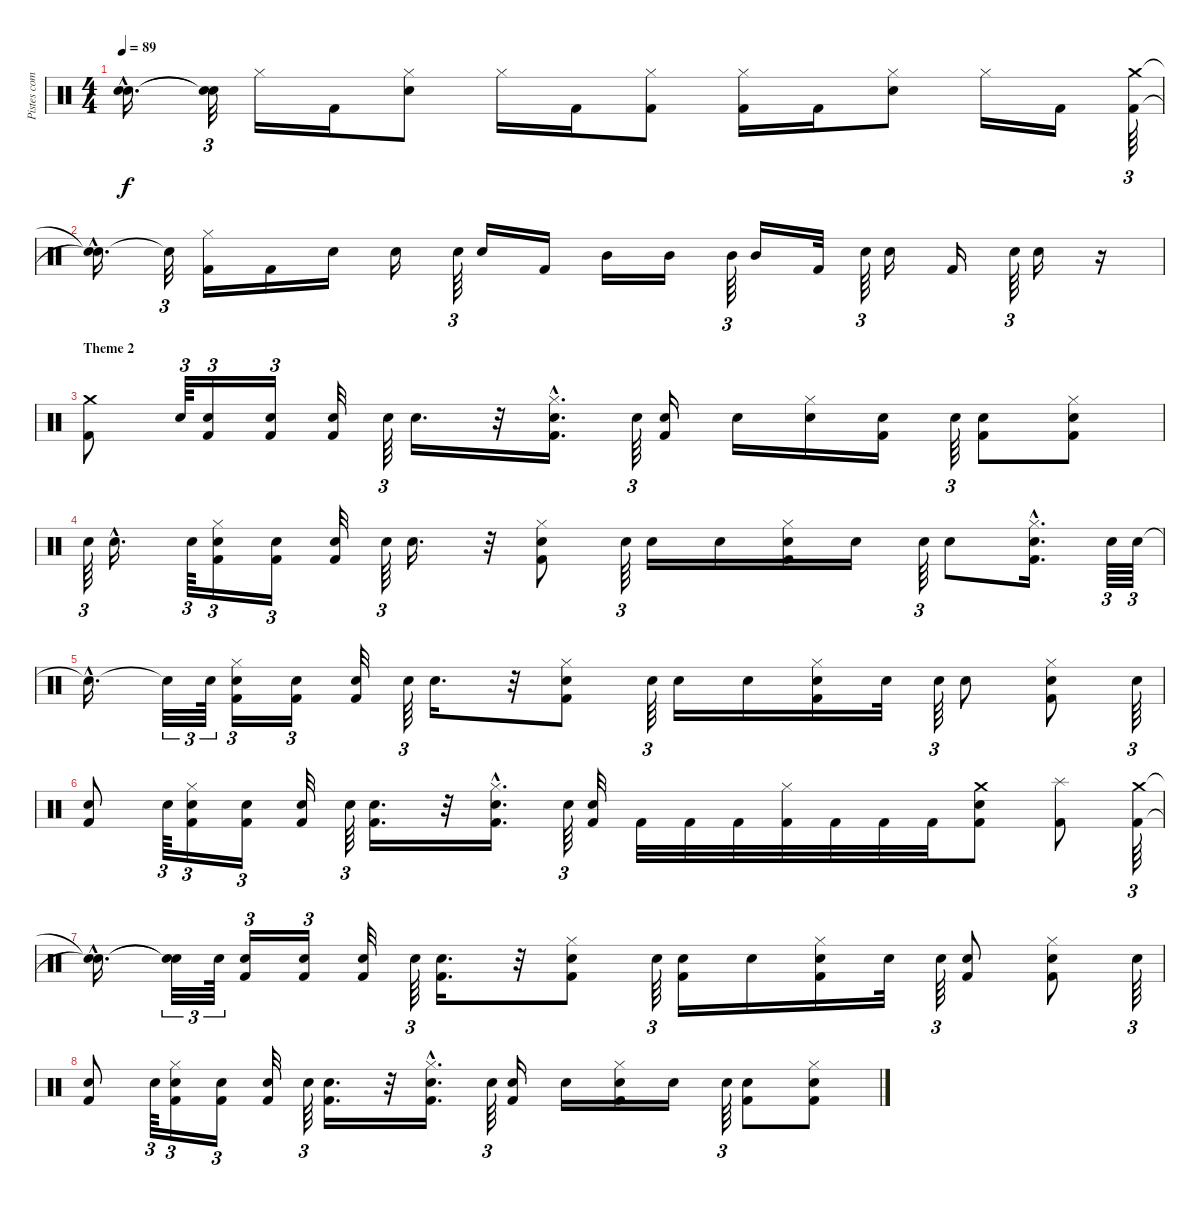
\track ("Pistes combinées" "Pistes com") {instrument percussion}
\staff {score}
\articulation defaults
\ts (4 4)
\tempo 89
\clef neutral
\ks c
("Snare (hit)"{hac t} "Snare (hit)"{hac t}).16{d dy f} ("Snare (hit)"{t} "Snare (hit)"{t}).32{tu (3 2)} "Hi-Hat (closed)".16 "Kick (hit) 2".16 ("Hi-Hat (closed)" "Electric Snare (hit)").8 "Hi-Hat (closed)".16 "Kick (hit) 2".16 ("Hi-Hat (closed)" "Kick (hit) 2").8 ("Hi-Hat (closed)" "Kick (hit) 2").16 "Kick (hit) 2".16 ("Hi-Hat (closed)" "Electric Snare (hit)").8 "Hi-Hat (closed)".16 "Kick (hit) 2".16 ("Crash medium (hit)" "Kick (hit) 2").64{tu (3 2)} |
("Snare (hit)"{hac t} "Snare (hit)"{hac t}).16{d} "Snare (hit)"{t}.32{tu (3 2)} ("Hi-Hat (closed)" "Kick (hit) 2").16 "Kick (hit) 2".16 "Electric Snare (hit)".16 "Electric Snare (hit)".16 "Electric Snare (hit)".64{tu (3 2)} "Electric Snare (hit)".16 "Kick (hit) 2".16 "Mid Tom (hit)".16 "Mid Tom (hit)".16 "Mid Tom (hit)".64{tu (3 2)} "Mid Tom (hit)".16 "Kick (hit) 2".32 "Electric Snare (hit)".64{tu (3 2)} "Electric Snare (hit)".16 "Kick (hit) 2".16 "Electric Snare (hit)".64{tu (3 2)} "Electric Snare (hit)".16 r.16 |
\section ("" "Theme 2")
("Crash medium (hit)" "Kick (hit) 2").8 "Electric Snare (hit)".64{tu (3 2)} ("Kick (hit) 2" "Electric Snare (hit)").16{tu (3 2)} ("Kick (hit) 2" "Electric Snare (hit)").16{tu (3 2)} ("Kick (hit) 2" "Electric Snare (hit)").32 "Electric Snare (hit)".64{tu (3 2)} "Electric Snare (hit)".16{d} r.32 ("Hi-Hat (closed)" "Kick (hit) 2" "Electric Snare (hit)"{hac}).16{d} "Electric Snare (hit)".64{tu (3 2)} ("Kick (hit) 2" "Electric Snare (hit)").16 "Electric Snare (hit)".16 ("Hi-Hat (closed)" "Electric Snare (hit)").16 ("Kick (hit) 2" "Electric Snare (hit)").16 "Electric Snare (hit)".64{tu (3 2)} ("Kick (hit) 2" "Electric Snare (hit)").8 ("Hi-Hat (closed)" "Kick (hit) 2" "Electric Snare (hit)").8 |
"Electric Snare (hit)".64{tu (3 2)} "Electric Snare (hit)"{hac}.16{d} "Electric Snare (hit)".64{tu (3 2)} ("Hi-Hat (closed)" "Kick (hit) 2" "Electric Snare (hit)").16{tu (3 2)} ("Kick (hit) 2" "Electric Snare (hit)").16{tu (3 2)} ("Kick (hit) 2" "Electric Snare (hit)").32 "Electric Snare (hit)".64{tu (3 2)} "Electric Snare (hit)".16{d} r.32 ("Hi-Hat (closed)" "Kick (hit) 2" "Electric Snare (hit)").8 "Electric Snare (hit)".64{tu (3 2)} "Electric Snare (hit)".16 "Electric Snare (hit)".16 ("Hi-Hat (closed)" "Kick (hit) 2" "Electric Snare (hit)").16 "Electric Snare (hit)".16 "Electric Snare (hit)".64{tu (3 2)} "Electric Snare (hit)".8 ("Hi-Hat (closed)" "Kick (hit) 2" "Electric Snare (hit)"{hac}).16{d} "Electric Snare (hit)".64{tu (3 2)} "Electric Snare (hit)".64{tu (3 2)} |
"Snare (hit)"{hac t}.16{d} "Snare (hit)"{t}.32{tu (3 2)} "Electric Snare (hit)".64{tu (3 2)} ("Hi-Hat (closed)" "Kick (hit) 2" "Electric Snare (hit)").16{tu (3 2)} ("Kick (hit) 2" "Electric Snare (hit)").16{tu (3 2)} ("Kick (hit) 2" "Electric Snare (hit)").32 "Electric Snare (hit)".64{tu (3 2)} "Electric Snare (hit)".16{d} r.32 ("Hi-Hat (closed)" "Kick (hit) 2" "Electric Snare (hit)").8 "Electric Snare (hit)".64{tu (3 2)} "Electric Snare (hit)".16 "Electric Snare (hit)".16 ("Hi-Hat (closed)" "Kick (hit) 2" "Electric Snare (hit)").16 "Electric Snare (hit)".32 "Electric Snare (hit)".64{tu (3 2)} "Electric Snare (hit)".8 ("Hi-Hat (closed)" "Kick (hit) 2" "Electric Snare (hit)").8 "Electric Snare (hit)".64{tu (3 2)} |
("Kick (hit) 2" "Electric Snare (hit)").8 "Electric Snare (hit)".64{tu (3 2)} ("Hi-Hat (closed)" "Kick (hit) 2" "Electric Snare (hit)").16{tu (3 2)} ("Kick (hit) 2" "Electric Snare (hit)").16{tu (3 2)} ("Kick (hit) 2" "Electric Snare (hit)").32 "Electric Snare (hit)".64{tu (3 2)} ("Kick (hit) 2" "Electric Snare (hit)").16{d} r.32 ("Hi-Hat (closed)" "Kick (hit) 2" "Electric Snare (hit)"{hac}).16{d} "Electric Snare (hit)".64{tu (3 2)} ("Kick (hit) 2" "Electric Snare (hit)").32 "Kick (hit) 2".32 "Kick (hit) 2".32 "Kick (hit) 2".32 ("Hi-Hat (closed)" "Kick (hit) 2").32 "Kick (hit) 2".32 "Kick (hit) 2".32 "Kick (hit) 2".32 ("Crash medium (hit)" "Kick (hit) 2" "Electric Snare (hit)").8 ("Splash (hit)" "Kick (hit) 2").8 ("Crash medium (hit)" "Kick (hit) 2").64{tu (3 2)} |
("Snare (hit)"{hac t} "Snare (hit)"{hac t}).16{d} ("Snare (hit)"{t} "Snare (hit)"{t}).32{tu (3 2)} "Electric Snare (hit)".64{tu (3 2)} ("Kick (hit) 2" "Electric Snare (hit)").16{tu (3 2)} ("Kick (hit) 2" "Electric Snare (hit)").16{tu (3 2)} ("Kick (hit) 2" "Electric Snare (hit)").32 "Electric Snare (hit)".64{tu (3 2)} ("Kick (hit) 2" "Electric Snare (hit)").16{d} r.32 ("Hi-Hat (closed)" "Kick (hit) 2" "Electric Snare (hit)").8 "Electric Snare (hit)".64{tu (3 2)} ("Kick (hit) 2" "Electric Snare (hit)").16 "Electric Snare (hit)".16 ("Hi-Hat (closed)" "Kick (hit) 2" "Electric Snare (hit)").16 "Electric Snare (hit)".32 "Electric Snare (hit)".64{tu (3 2)} ("Kick (hit) 2" "Electric Snare (hit)").8 ("Hi-Hat (closed)" "Kick (hit) 2" "Electric Snare (hit)").8 "Electric Snare (hit)".64{tu (3 2)} |
("Kick (hit) 2" "Electric Snare (hit)").8 "Electric Snare (hit)".64{tu (3 2)} ("Hi-Hat (closed)" "Kick (hit) 2" "Electric Snare (hit)").16{tu (3 2)} ("Kick (hit) 2" "Electric Snare (hit)").16{tu (3 2)} ("Kick (hit) 2" "Electric Snare (hit)").32 "Electric Snare (hit)".64{tu (3 2)} ("Kick (hit) 2" "Electric Snare (hit)").16{d} r.32 ("Hi-Hat (closed)" "Kick (hit) 2" "Electric Snare (hit)"{hac}).16{d} "Electric Snare (hit)".64{tu (3 2)} ("Kick (hit) 2" "Electric Snare (hit)").16 "Electric Snare (hit)".16 ("Hi-Hat (closed)" "Kick (hit) 2" "Electric Snare (hit)").16 "Electric Snare (hit)".16 "Electric Snare (hit)".64{tu (3 2)} ("Kick (hit) 2" "Electric Snare (hit)").8 ("Hi-Hat (closed)" "Kick (hit) 2" "Electric Snare (hit)").8
